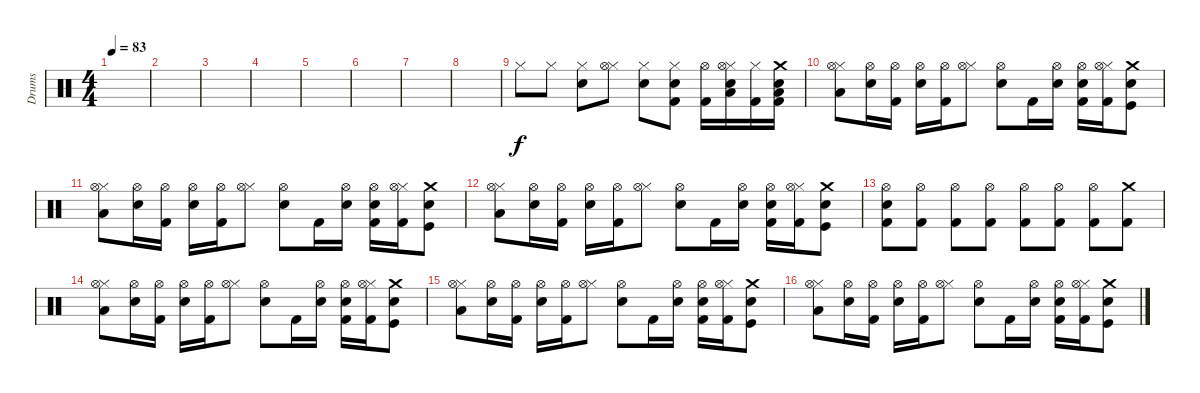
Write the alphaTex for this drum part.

\track ("Drums" "Drums") {instrument percussion}
\staff {score}
\articulation defaults
\ts (4 4)
\tempo 83
\clef neutral
\ks c
|
|
|
|
|
|
|
|
"Hi-Hat (closed)".8 "Hi-Hat (closed)".8 ("Hi-Hat (closed)" "Electric Snare (hit)").8 ("Hi-Hat (closed)" "Hi-Hat (open)").8 ("Hi-Hat (closed)" "Electric Snare (hit)").8 ("Hi-Hat (closed)" "Electric Snare (hit)" "Kick (hit) 2").8 ("Hi-Hat (open)" "Kick (hit) 2").16 ("Hi-Hat (closed)" "Snare (hit) 2" "Low Floor Tom (hit)" "Hi-Hat (open)").16 ("Hi-Hat (closed)" "Kick (hit) 2").16 ("Crash medium (hit)" "Snare (hit) 2" "Low Floor Tom (hit)" "Kick (hit) 2").16 |
("Hi-Hat (closed)" "Low Floor Tom (hit)" "Hi-Hat (open)").8 ("Snare (hit) 2" "Hi-Hat (open)").16 ("Kick (hit) 2" "Hi-Hat (open)").16 ("Snare (hit) 2" "Hi-Hat (open)").16 ("Kick (hit) 2" "Hi-Hat (open)").16 ("Hi-Hat (closed)" "Hi-Hat (open)").8 ("Snare (hit) 2" "Hi-Hat (open)").8 "Kick (hit) 2".16 ("Snare (hit) 2" "Hi-Hat (open)").16 ("Kick (hit) 2" "Hi-Hat (open)" "Snare (hit) 2").16 ("Kick (hit) 2" "Hi-Hat (closed)" "Hi-Hat (open)").16 ("Crash medium (hit)" "Kick (hit)" "Snare (hit) 2").8 |
("Hi-Hat (closed)" "Low Floor Tom (hit)" "Hi-Hat (open)").8 ("Snare (hit) 2" "Hi-Hat (open)").16 ("Kick (hit) 2" "Hi-Hat (open)").16 ("Snare (hit) 2" "Hi-Hat (open)").16 ("Kick (hit) 2" "Hi-Hat (open)").16 ("Hi-Hat (closed)" "Hi-Hat (open)").8 ("Snare (hit) 2" "Hi-Hat (open)").8 "Kick (hit) 2".16 ("Snare (hit) 2" "Hi-Hat (open)").16 ("Kick (hit) 2" "Hi-Hat (open)" "Snare (hit) 2").16 ("Kick (hit) 2" "Hi-Hat (closed)" "Hi-Hat (open)").16 ("Crash medium (hit)" "Kick (hit)" "Snare (hit) 2").8 |
("Hi-Hat (closed)" "Low Floor Tom (hit)" "Hi-Hat (open)").8 ("Snare (hit) 2" "Hi-Hat (open)").16 ("Kick (hit) 2" "Hi-Hat (open)").16 ("Snare (hit) 2" "Hi-Hat (open)").16 ("Kick (hit) 2" "Hi-Hat (open)").16 ("Hi-Hat (closed)" "Hi-Hat (open)").8 ("Snare (hit) 2" "Hi-Hat (open)").8 "Kick (hit) 2".16 ("Snare (hit) 2" "Hi-Hat (open)").16 ("Kick (hit) 2" "Hi-Hat (open)" "Snare (hit) 2").16 ("Kick (hit) 2" "Hi-Hat (closed)" "Hi-Hat (open)").16 ("Crash medium (hit)" "Kick (hit)" "Snare (hit) 2").8 |
("Hi-Hat (open)" "Kick (hit) 2" "Snare (hit) 2").8 ("Hi-Hat (open)" "Kick (hit) 2").8 ("Hi-Hat (open)" "Kick (hit) 2").8 ("Hi-Hat (open)" "Kick (hit) 2").8 ("Hi-Hat (open)" "Kick (hit) 2").8 ("Hi-Hat (open)" "Kick (hit) 2").8 ("Hi-Hat (open)" "Kick (hit) 2").8 ("Crash medium (hit)" "Kick (hit) 2").8 |
("Hi-Hat (closed)" "Low Floor Tom (hit)" "Hi-Hat (open)").8 ("Snare (hit) 2" "Hi-Hat (open)").16 ("Kick (hit) 2" "Hi-Hat (open)").16 ("Snare (hit) 2" "Hi-Hat (open)").16 ("Kick (hit) 2" "Hi-Hat (open)").16 ("Hi-Hat (closed)" "Hi-Hat (open)").8 ("Snare (hit) 2" "Hi-Hat (open)").8 "Kick (hit) 2".16 ("Snare (hit) 2" "Hi-Hat (open)").16 ("Kick (hit) 2" "Hi-Hat (open)" "Snare (hit) 2").16 ("Kick (hit) 2" "Hi-Hat (closed)" "Hi-Hat (open)").16 ("Crash medium (hit)" "Kick (hit)" "Snare (hit) 2").8 |
("Hi-Hat (closed)" "Low Floor Tom (hit)" "Hi-Hat (open)").8 ("Snare (hit) 2" "Hi-Hat (open)").16 ("Kick (hit) 2" "Hi-Hat (open)").16 ("Snare (hit) 2" "Hi-Hat (open)").16 ("Kick (hit) 2" "Hi-Hat (open)").16 ("Hi-Hat (closed)" "Hi-Hat (open)").8 ("Snare (hit) 2" "Hi-Hat (open)").8 "Kick (hit) 2".16 ("Snare (hit) 2" "Hi-Hat (open)").16 ("Kick (hit) 2" "Hi-Hat (open)" "Snare (hit) 2").16 ("Kick (hit) 2" "Hi-Hat (closed)" "Hi-Hat (open)").16 ("Crash medium (hit)" "Kick (hit)" "Snare (hit) 2").8 |
("Hi-Hat (closed)" "Low Floor Tom (hit)" "Hi-Hat (open)").8 ("Snare (hit) 2" "Hi-Hat (open)").16 ("Kick (hit) 2" "Hi-Hat (open)").16 ("Snare (hit) 2" "Hi-Hat (open)").16 ("Kick (hit) 2" "Hi-Hat (open)").16 ("Hi-Hat (closed)" "Hi-Hat (open)").8 ("Snare (hit) 2" "Hi-Hat (open)").8 "Kick (hit) 2".16 ("Snare (hit) 2" "Hi-Hat (open)").16 ("Kick (hit) 2" "Hi-Hat (open)" "Snare (hit) 2").16 ("Kick (hit) 2" "Hi-Hat (closed)" "Hi-Hat (open)").16 ("Crash medium (hit)" "Kick (hit)" "Snare (hit) 2").8
